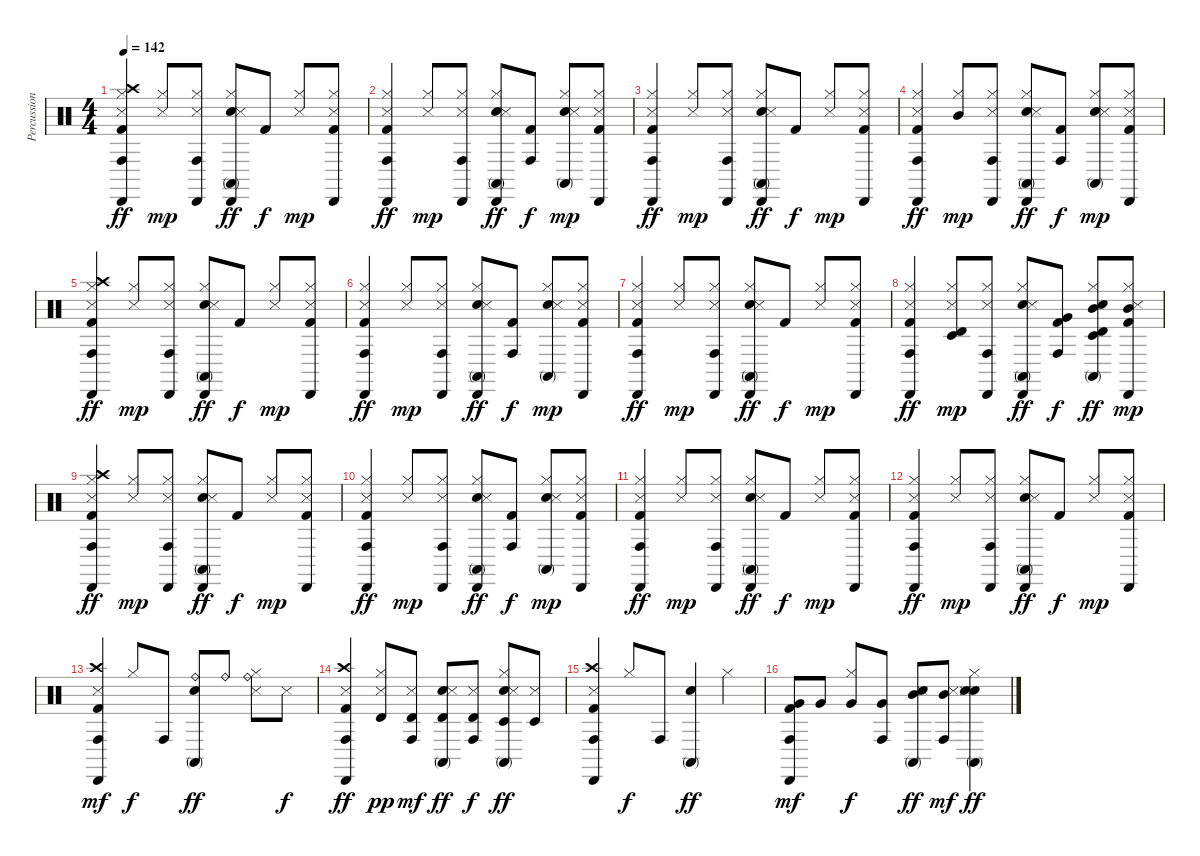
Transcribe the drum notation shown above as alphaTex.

\track ("Percussion Booster" "Percussion") {instrument percussion}
\staff {score}
\articulation defaults
\ts (4 4)
\tempo 142
\clef neutral
\ks c
("Conga high (hit)" "Cabasa (hit)" "Crash high (hit)" "Hi-Hat (closed)" "Snare (side stick) 3" "Kick (hit) 2").4{dy ff} ("Hi-Hat (closed)" "Snare (side stick) 3").8{dy mp} ("Conga high (hit)" "Cabasa (hit)" "Hi-Hat (closed)" "Snare (side stick) 3").8 ("Conga high (mute)" "Cabasa (hit)" "Hi-Hat (closed)" "Hand Clap (hit)" "Snare (side stick) 3").8{dy ff} "Kick (hit) 2".8{dy f} ("Hi-Hat (closed)" "Snare (side stick) 3").8{dy mp} ("Cabasa (hit)" "Hi-Hat (closed)" "Snare (side stick) 3" "Kick (hit) 2").8 |
("Conga high (hit)" "Cabasa (hit)" "Hi-Hat (closed)" "Snare (side stick) 3" "Kick (hit) 2").4{dy ff} ("Hi-Hat (closed)" "Snare (side stick) 3").8{dy mp} ("Conga high (hit)" "Cabasa (hit)" "Hi-Hat (closed)" "Snare (side stick) 3").8 ("Conga high (mute)" "Cabasa (hit)" "Hi-Hat (closed)" "Hand Clap (hit)" "Snare (side stick) 3").8{dy ff} ("Conga high (hit)" "Kick (hit) 2").8{dy f} ("Conga high (mute)" "Hi-Hat (closed)" "Hand Clap (hit)" "Snare (side stick) 3").8{dy mp} ("Cabasa (hit)" "Hi-Hat (closed)" "Snare (side stick) 3" "Kick (hit) 2").8 |
("Conga high (hit)" "Cabasa (hit)" "Hi-Hat (closed)" "Snare (side stick) 3" "Kick (hit) 2").4{dy ff} ("Hi-Hat (closed)" "Snare (side stick) 3").8{dy mp} ("Conga high (hit)" "Cabasa (hit)" "Hi-Hat (closed)" "Snare (side stick) 3").8 ("Conga high (mute)" "Cabasa (hit)" "Hi-Hat (closed)" "Hand Clap (hit)" "Snare (side stick) 3").8{dy ff} "Kick (hit) 2".8{dy f} ("Hi-Hat (closed)" "Snare (side stick) 3").8{dy mp} ("Cabasa (hit)" "Hi-Hat (closed)" "Snare (side stick) 3" "Kick (hit) 2").8 |
("Conga high (hit)" "Cabasa (hit)" "Hi-Hat (closed)" "Snare (side stick) 3" "Kick (hit) 2").4{dy ff} ("Hi-Hat (closed)" "Mid Tom (hit)").8{dy mp} ("Conga high (hit)" "Cabasa (hit)" "Hi-Hat (closed)" "Snare (side stick) 3").8 ("Conga high (mute)" "Cabasa (hit)" "Hi-Hat (closed)" "Hand Clap (hit)" "Snare (side stick) 3").8{dy ff} ("Conga high (hit)" "Kick (hit) 2").8{dy f} ("Conga high (mute)" "Hi-Hat (closed)" "Hand Clap (hit)" "Snare (side stick) 3").8{dy mp} ("Cabasa (hit)" "Hi-Hat (closed)" "Snare (side stick) 3" "Kick (hit) 2").8 |
("Conga high (hit)" "Cabasa (hit)" "Crash high (hit)" "Hi-Hat (closed)" "Snare (side stick) 3" "Kick (hit) 2").4{dy ff} ("Hi-Hat (closed)" "Snare (side stick) 3").8{dy mp} ("Conga high (hit)" "Cabasa (hit)" "Hi-Hat (closed)" "Snare (side stick) 3").8 ("Conga high (mute)" "Cabasa (hit)" "Hi-Hat (closed)" "Hand Clap (hit)" "Snare (side stick) 3").8{dy ff} "Kick (hit) 2".8{dy f} ("Hi-Hat (closed)" "Snare (side stick) 3").8{dy mp} ("Cabasa (hit)" "Hi-Hat (closed)" "Snare (side stick) 3" "Kick (hit) 2").8 |
("Conga high (hit)" "Cabasa (hit)" "Hi-Hat (closed)" "Snare (side stick) 3" "Kick (hit) 2").4{dy ff} ("Hi-Hat (closed)" "Snare (side stick) 3").8{dy mp} ("Conga high (hit)" "Cabasa (hit)" "Hi-Hat (closed)" "Snare (side stick) 3").8 ("Conga high (mute)" "Cabasa (hit)" "Hi-Hat (closed)" "Hand Clap (hit)" "Snare (side stick) 3").8{dy ff} ("Conga high (hit)" "Kick (hit) 2").8{dy f} ("Conga high (mute)" "Hi-Hat (closed)" "Hand Clap (hit)" "Snare (side stick) 3").8{dy mp} ("Cabasa (hit)" "Hi-Hat (closed)" "Snare (side stick) 3" "Kick (hit) 2").8 |
("Conga high (hit)" "Cabasa (hit)" "Hi-Hat (closed)" "Snare (side stick) 3" "Kick (hit) 2").4{dy ff} ("Hi-Hat (closed)" "Snare (side stick) 3").8{dy mp} ("Conga high (hit)" "Cabasa (hit)" "Hi-Hat (closed)" "Snare (side stick) 3").8 ("Conga high (mute)" "Cabasa (hit)" "Hi-Hat (closed)" "Hand Clap (hit)" "Snare (side stick) 3").8{dy ff} "Kick (hit) 2".8{dy f} ("Hi-Hat (closed)" "Snare (side stick) 3").8{dy mp} ("Cabasa (hit)" "Hi-Hat (closed)" "Snare (side stick) 3" "Kick (hit) 2").8 |
("Conga high (hit)" "Cabasa (hit)" "Hi-Hat (closed)" "Snare (side stick) 3" "Kick (hit) 2").4{dy ff} ("Timbale low (hit)" "Timbale high (hit)" "Hi-Hat (closed)" "Snare (side stick) 3").8{dy mp} ("Conga high (hit)" "Cabasa (hit)" "Hi-Hat (closed)" "Snare (side stick) 3").8 ("Conga high (mute)" "Cabasa (hit)" "Hi-Hat (closed)" "Hand Clap (hit)" "Snare (side stick) 3").8{dy ff} ("Conga high (hit)" "Very Low Tom (hit)" "Kick (hit) 2").8{dy f} ("Timbale low (hit)" "Timbale high (hit)" "Conga high (mute)" "Mid Tom (hit)" "Hi-Hat (closed)" "Hand Clap (hit)").8{dy ff} ("Cabasa (hit)" "Mid Tom (hit)" "Hi-Hat (closed)" "Snare (side stick) 3" "Kick (hit) 2").8{dy mp} |
("Conga high (hit)" "Cabasa (hit)" "Crash high (hit)" "Hi-Hat (closed)" "Snare (side stick) 3" "Kick (hit) 2").4{dy ff} ("Hi-Hat (closed)" "Snare (side stick) 3").8{dy mp} ("Conga high (hit)" "Cabasa (hit)" "Hi-Hat (closed)" "Snare (side stick) 3").8 ("Conga high (mute)" "Cabasa (hit)" "Hi-Hat (closed)" "Hand Clap (hit)" "Snare (side stick) 3").8{dy ff} "Kick (hit) 2".8{dy f} ("Hi-Hat (closed)" "Snare (side stick) 3").8{dy mp} ("Cabasa (hit)" "Hi-Hat (closed)" "Snare (side stick) 3" "Kick (hit) 2").8 |
("Conga high (hit)" "Cabasa (hit)" "Hi-Hat (closed)" "Snare (side stick) 3" "Kick (hit) 2").4{dy ff} ("Hi-Hat (closed)" "Snare (side stick) 3").8{dy mp} ("Conga high (hit)" "Cabasa (hit)" "Hi-Hat (closed)" "Snare (side stick) 3").8 ("Conga high (mute)" "Cabasa (hit)" "Hi-Hat (closed)" "Hand Clap (hit)" "Snare (side stick) 3").8{dy ff} ("Conga high (hit)" "Kick (hit) 2").8{dy f} ("Conga high (mute)" "Hi-Hat (closed)" "Hand Clap (hit)" "Snare (side stick) 3").8{dy mp} ("Cabasa (hit)" "Hi-Hat (closed)" "Snare (side stick) 3" "Kick (hit) 2").8 |
("Conga high (hit)" "Cabasa (hit)" "Hi-Hat (closed)" "Snare (side stick) 3" "Kick (hit) 2").4{dy ff} ("Hi-Hat (closed)" "Snare (side stick) 3").8{dy mp} ("Conga high (hit)" "Cabasa (hit)" "Hi-Hat (closed)" "Snare (side stick) 3").8 ("Conga high (mute)" "Cabasa (hit)" "Hi-Hat (closed)" "Hand Clap (hit)" "Snare (side stick) 3").8{dy ff} "Kick (hit) 2".8{dy f} ("Hi-Hat (closed)" "Snare (side stick) 3").8{dy mp} ("Cabasa (hit)" "Hi-Hat (closed)" "Snare (side stick) 3" "Kick (hit) 2").8 |
("Conga high (hit)" "Cabasa (hit)" "Hi-Hat (closed)" "Snare (side stick) 3" "Kick (hit) 2").4{dy ff} ("Hi-Hat (closed)" "Snare (side stick) 3").8{dy mp} ("Conga high (hit)" "Cabasa (hit)" "Hi-Hat (closed)" "Snare (side stick) 3").8 ("Conga high (mute)" "Cabasa (hit)" "Hi-Hat (closed)" "Hand Clap (hit)" "Snare (side stick) 3").8{dy ff} "Kick (hit) 2".8{dy f} ("Hi-Hat (closed)" "Snare (side stick) 3").8{dy mp} ("Cabasa (hit)" "Hi-Hat (closed)" "Snare (side stick) 3" "Kick (hit) 2").8 |
("Conga high (hit)" "Cabasa (hit)" "Crash high (hit)" "Snare (side stick) 3" "Kick (hit) 2").4{dy mf} "Hi-Hat (closed)".8{dy f} "Conga high (hit)".8 ("Conga high (mute)" "Ride (bell)" "Hand Clap (hit)").8{dy ff} "Ride (bell)".8 ("Ride (bell)" "Hi-Hat (closed)" "Snare (side stick) 3").8 "Snare (side stick) 3".8{dy f} |
("Conga high (hit)" "Cabasa (hit)" "Crash high (hit)" "Snare (side stick) 3" "Kick (hit) 2").4{dy ff} ("Timbale high (hit)" "Hi-Hat (closed)" "Snare (side stick) 3").8{dy pp} ("Timbale high (hit)" "Conga high (hit)" "Snare (side stick) 3").8{dy mf} ("Timbale high (hit)" "Conga high (mute)" "Hand Clap (hit)" "Snare (side stick) 3").8{dy ff} ("Timbale high (hit)" "Conga high (hit)" "Snare (side stick) 3").8{dy f} ("Timbale low (hit)" "Conga high (mute)" "Hi-Hat (closed)" "Hand Clap (hit)" "Snare (side stick) 3").8{dy ff} ("Timbale low (hit)" "Snare (side stick) 3").8 |
("Conga high (hit)" "Cabasa (hit)" "Crash high (hit)" "Snare (side stick) 3" "Kick (hit) 2").4 "Hi-Hat (closed)".8{dy f} "Conga high (hit)".8 ("Conga high (mute)" "Hand Clap (hit)").4{dy ff} "Hi-Hat (closed)".4 |
("Conga high (hit)" "Cabasa (hit)" "Very Low Tom (hit)" "Kick (hit) 2").8{dy mf} "Very Low Tom (hit)".8 ("Very Low Tom (hit)" "Hi-Hat (closed)").8{dy f} ("Conga high (hit)" "Very Low Tom (hit)").8 ("Conga high (mute)" "Mid Tom (hit)" "Hand Clap (hit)" "Snare (side stick) 3").8{dy ff} ("Conga high (hit)" "Mid Tom (hit)" "Snare (side stick) 3").8{dy mf} ("Conga high (mute)" "Hi-Hat (closed)" "Hand Clap (hit)" "Snare (hit) 2" "Snare (side stick) 3").4{dy ff}
